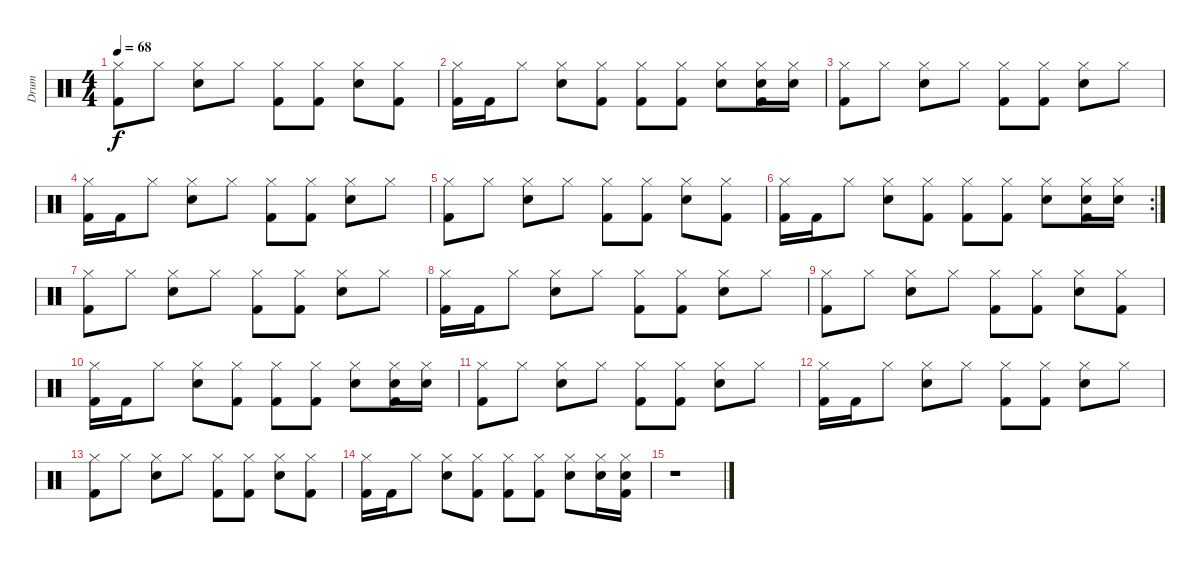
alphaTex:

\track ("Drum" "Drum") {instrument percussion}
\staff {score}
\articulation defaults
\ts (4 4)
\tempo 68
\clef neutral
\ks c
("Hi-Hat (closed)" "Kick (hit) 2").8{dy f} "Hi-Hat (closed)".8 ("Hi-Hat (closed)" "Snare (hit) 2").8 "Hi-Hat (closed)".8 ("Hi-Hat (closed)" "Kick (hit) 2").8 ("Hi-Hat (closed)" "Kick (hit) 2").8 ("Hi-Hat (closed)" "Snare (hit) 2").8 ("Hi-Hat (closed)" "Kick (hit) 2").8 |
("Hi-Hat (closed)" "Kick (hit) 2").16 "Kick (hit) 2".16 "Hi-Hat (closed)".8 ("Hi-Hat (closed)" "Snare (hit) 2").8 ("Hi-Hat (closed)" "Kick (hit) 2").8 ("Hi-Hat (closed)" "Kick (hit) 2").8 ("Hi-Hat (closed)" "Kick (hit) 2").8 ("Hi-Hat (closed)" "Snare (hit) 2").8 ("Hi-Hat (closed)" "Snare (hit) 2" "Kick (hit) 2").16 ("Hi-Hat (closed)" "Snare (hit) 2").16 |
("Hi-Hat (closed)" "Kick (hit) 2").8 "Hi-Hat (closed)".8 ("Hi-Hat (closed)" "Snare (hit) 2").8 "Hi-Hat (closed)".8 ("Hi-Hat (closed)" "Kick (hit) 2").8 ("Hi-Hat (closed)" "Kick (hit) 2").8 ("Hi-Hat (closed)" "Snare (hit) 2").8 "Hi-Hat (closed)".8 |
("Hi-Hat (closed)" "Kick (hit) 2").16 "Kick (hit) 2".16 "Hi-Hat (closed)".8 ("Hi-Hat (closed)" "Snare (hit) 2").8 "Hi-Hat (closed)".8 ("Hi-Hat (closed)" "Kick (hit) 2").8 ("Hi-Hat (closed)" "Kick (hit) 2").8 ("Hi-Hat (closed)" "Snare (hit) 2").8 "Hi-Hat (closed)".8 |
("Hi-Hat (closed)" "Kick (hit) 2").8 "Hi-Hat (closed)".8 ("Hi-Hat (closed)" "Snare (hit) 2").8 "Hi-Hat (closed)".8 ("Hi-Hat (closed)" "Kick (hit) 2").8 ("Hi-Hat (closed)" "Kick (hit) 2").8 ("Hi-Hat (closed)" "Snare (hit) 2").8 ("Hi-Hat (closed)" "Kick (hit) 2").8 |
\rc 2
("Hi-Hat (closed)" "Kick (hit) 2").16 "Kick (hit) 2".16 "Hi-Hat (closed)".8 ("Hi-Hat (closed)" "Snare (hit) 2").8 ("Hi-Hat (closed)" "Kick (hit) 2").8 ("Hi-Hat (closed)" "Kick (hit) 2").8 ("Hi-Hat (closed)" "Kick (hit) 2").8 ("Hi-Hat (closed)" "Snare (hit) 2").8 ("Hi-Hat (closed)" "Snare (hit) 2" "Kick (hit) 2").16 ("Hi-Hat (closed)" "Snare (hit) 2").16 |
("Hi-Hat (closed)" "Kick (hit) 2").8 "Hi-Hat (closed)".8 ("Hi-Hat (closed)" "Snare (hit) 2").8 "Hi-Hat (closed)".8 ("Hi-Hat (closed)" "Kick (hit) 2").8 ("Hi-Hat (closed)" "Kick (hit) 2").8 ("Hi-Hat (closed)" "Snare (hit) 2").8 "Hi-Hat (closed)".8 |
("Hi-Hat (closed)" "Kick (hit) 2").16 "Kick (hit) 2".16 "Hi-Hat (closed)".8 ("Hi-Hat (closed)" "Snare (hit) 2").8 "Hi-Hat (closed)".8 ("Hi-Hat (closed)" "Kick (hit) 2").8 ("Hi-Hat (closed)" "Kick (hit) 2").8 ("Hi-Hat (closed)" "Snare (hit) 2").8 "Hi-Hat (closed)".8 |
("Hi-Hat (closed)" "Kick (hit) 2").8 "Hi-Hat (closed)".8 ("Hi-Hat (closed)" "Snare (hit) 2").8 "Hi-Hat (closed)".8 ("Hi-Hat (closed)" "Kick (hit) 2").8 ("Hi-Hat (closed)" "Kick (hit) 2").8 ("Hi-Hat (closed)" "Snare (hit) 2").8 ("Hi-Hat (closed)" "Kick (hit) 2").8 |
("Hi-Hat (closed)" "Kick (hit) 2").16 "Kick (hit) 2".16 "Hi-Hat (closed)".8 ("Hi-Hat (closed)" "Snare (hit) 2").8 ("Hi-Hat (closed)" "Kick (hit) 2").8 ("Hi-Hat (closed)" "Kick (hit) 2").8 ("Hi-Hat (closed)" "Kick (hit) 2").8 ("Hi-Hat (closed)" "Snare (hit) 2").8 ("Hi-Hat (closed)" "Snare (hit) 2" "Kick (hit) 2").16 ("Hi-Hat (closed)" "Snare (hit) 2").16 |
("Hi-Hat (closed)" "Kick (hit) 2").8 "Hi-Hat (closed)".8 ("Hi-Hat (closed)" "Snare (hit) 2").8 "Hi-Hat (closed)".8 ("Hi-Hat (closed)" "Kick (hit) 2").8 ("Hi-Hat (closed)" "Kick (hit) 2").8 ("Hi-Hat (closed)" "Snare (hit) 2").8 "Hi-Hat (closed)".8 |
("Hi-Hat (closed)" "Kick (hit) 2").16 "Kick (hit) 2".16 "Hi-Hat (closed)".8 ("Hi-Hat (closed)" "Snare (hit) 2").8 "Hi-Hat (closed)".8 ("Hi-Hat (closed)" "Kick (hit) 2").8 ("Hi-Hat (closed)" "Kick (hit) 2").8 ("Hi-Hat (closed)" "Snare (hit) 2").8 "Hi-Hat (closed)".8 |
("Hi-Hat (closed)" "Kick (hit) 2").8 "Hi-Hat (closed)".8 ("Hi-Hat (closed)" "Snare (hit) 2").8 "Hi-Hat (closed)".8 ("Hi-Hat (closed)" "Kick (hit) 2").8 ("Hi-Hat (closed)" "Kick (hit) 2").8 ("Hi-Hat (closed)" "Snare (hit) 2").8 ("Hi-Hat (closed)" "Kick (hit) 2").8 |
("Hi-Hat (closed)" "Kick (hit) 2").16 "Kick (hit) 2".16 "Hi-Hat (closed)".8 ("Hi-Hat (closed)" "Snare (hit) 2").8 ("Hi-Hat (closed)" "Kick (hit) 2").8 ("Hi-Hat (closed)" "Kick (hit) 2").8 ("Hi-Hat (closed)" "Kick (hit) 2").8 ("Hi-Hat (closed)" "Snare (hit) 2").8 ("Hi-Hat (closed)" "Snare (hit) 2").16 ("Hi-Hat (closed)" "Snare (hit) 2" "Kick (hit) 2").16 |
r.1
